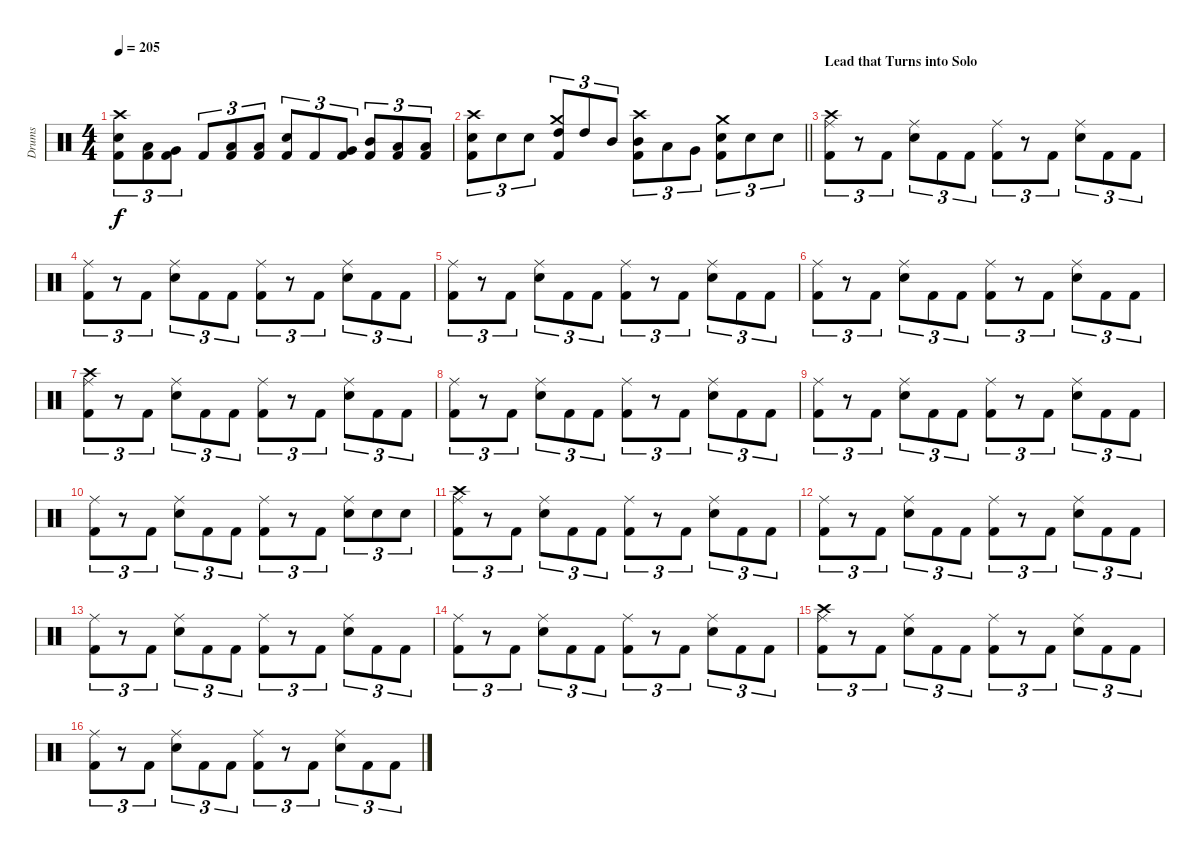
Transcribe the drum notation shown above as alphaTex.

\track ("Drums" "Drums") {instrument percussion}
\staff {score}
\articulation defaults
\ts (4 4)
\tempo 205
\clef neutral
\ks c
("Crash high (hit)" "Snare (hit) 2" "Kick (hit) 2").8{tu (3 2) dy f} ("Low Tom (hit)" "Kick (hit) 2").8{tu (3 2)} ("Very Low Tom (hit)" "Kick (hit) 2").8{tu (3 2)} "Kick (hit) 2".8{tu (3 2)} ("Low Floor Tom (hit)" "Kick (hit) 2").8{tu (3 2)} ("Low Floor Tom (hit)" "Kick (hit) 2").8{tu (3 2)} ("Snare (hit) 2" "Kick (hit) 2").8{tu (3 2)} "Kick (hit) 2".8{tu (3 2)} ("Very Low Tom (hit)" "Kick (hit) 2").8{tu (3 2)} ("Mid Tom (hit)" "Kick (hit) 2").8{tu (3 2)} ("Low Floor Tom (hit)" "Kick (hit) 2").8{tu (3 2)} ("Low Tom (hit)" "Kick (hit) 2").8{tu (3 2)} |
\barLineRight lightlight
("Crash high (hit)" "Snare (hit) 2" "Kick (hit) 2").8{tu (3 2)} "Snare (hit) 2".8{tu (3 2)} "Snare (hit) 2".8{tu (3 2)} ("Crash medium (hit)" "High Tom (hit)" "Kick (hit) 2").8{tu (3 2)} "High Tom (hit)".8{tu (3 2)} "Mid Tom (hit)".8{tu (3 2)} ("Crash high (hit)" "Mid Tom (hit)" "Kick (hit) 2").8{tu (3 2)} "Low Tom (hit)".8{tu (3 2)} "Very Low Tom (hit)".8{tu (3 2)} ("Crash medium (hit)" "Snare (hit) 2" "Kick (hit) 2").8{tu (3 2)} "Snare (hit) 2".8{tu (3 2)} "Snare (hit) 2".8{tu (3 2)} |
\section ("" "Lead that Turns into Solo")
("Crash high (hit)" "Ride (middle)" "Kick (hit) 2").8{tu (3 2)} r.8{tu (3 2)} "Kick (hit) 2".8{tu (3 2)} ("Ride (middle)" "Snare (hit) 2").8{tu (3 2)} "Kick (hit) 2".8{tu (3 2)} "Kick (hit) 2".8{tu (3 2)} ("Ride (middle)" "Kick (hit) 2").8{tu (3 2)} r.8{tu (3 2)} "Kick (hit) 2".8{tu (3 2)} ("Ride (middle)" "Snare (hit) 2").8{tu (3 2)} "Kick (hit) 2".8{tu (3 2)} "Kick (hit) 2".8{tu (3 2)} |
("Ride (middle)" "Kick (hit) 2").8{tu (3 2)} r.8{tu (3 2)} "Kick (hit) 2".8{tu (3 2)} ("Ride (middle)" "Snare (hit) 2").8{tu (3 2)} "Kick (hit) 2".8{tu (3 2)} "Kick (hit) 2".8{tu (3 2)} ("Ride (middle)" "Kick (hit) 2").8{tu (3 2)} r.8{tu (3 2)} "Kick (hit) 2".8{tu (3 2)} ("Ride (middle)" "Snare (hit) 2").8{tu (3 2)} "Kick (hit) 2".8{tu (3 2)} "Kick (hit) 2".8{tu (3 2)} |
("Ride (middle)" "Kick (hit) 2").8{tu (3 2)} r.8{tu (3 2)} "Kick (hit) 2".8{tu (3 2)} ("Ride (middle)" "Snare (hit) 2").8{tu (3 2)} "Kick (hit) 2".8{tu (3 2)} "Kick (hit) 2".8{tu (3 2)} ("Ride (middle)" "Kick (hit) 2").8{tu (3 2)} r.8{tu (3 2)} "Kick (hit) 2".8{tu (3 2)} ("Ride (middle)" "Snare (hit) 2").8{tu (3 2)} "Kick (hit) 2".8{tu (3 2)} "Kick (hit) 2".8{tu (3 2)} |
("Ride (middle)" "Kick (hit) 2").8{tu (3 2)} r.8{tu (3 2)} "Kick (hit) 2".8{tu (3 2)} ("Ride (middle)" "Snare (hit) 2").8{tu (3 2)} "Kick (hit) 2".8{tu (3 2)} "Kick (hit) 2".8{tu (3 2)} ("Ride (middle)" "Kick (hit) 2").8{tu (3 2)} r.8{tu (3 2)} "Kick (hit) 2".8{tu (3 2)} ("Ride (middle)" "Snare (hit) 2").8{tu (3 2)} "Kick (hit) 2".8{tu (3 2)} "Kick (hit) 2".8{tu (3 2)} |
("Crash high (hit)" "Ride (middle)" "Kick (hit) 2").8{tu (3 2)} r.8{tu (3 2)} "Kick (hit) 2".8{tu (3 2)} ("Ride (middle)" "Snare (hit) 2").8{tu (3 2)} "Kick (hit) 2".8{tu (3 2)} "Kick (hit) 2".8{tu (3 2)} ("Ride (middle)" "Kick (hit) 2").8{tu (3 2)} r.8{tu (3 2)} "Kick (hit) 2".8{tu (3 2)} ("Ride (middle)" "Snare (hit) 2").8{tu (3 2)} "Kick (hit) 2".8{tu (3 2)} "Kick (hit) 2".8{tu (3 2)} |
("Ride (middle)" "Kick (hit) 2").8{tu (3 2)} r.8{tu (3 2)} "Kick (hit) 2".8{tu (3 2)} ("Ride (middle)" "Snare (hit) 2").8{tu (3 2)} "Kick (hit) 2".8{tu (3 2)} "Kick (hit) 2".8{tu (3 2)} ("Ride (middle)" "Kick (hit) 2").8{tu (3 2)} r.8{tu (3 2)} "Kick (hit) 2".8{tu (3 2)} ("Ride (middle)" "Snare (hit) 2").8{tu (3 2)} "Kick (hit) 2".8{tu (3 2)} "Kick (hit) 2".8{tu (3 2)} |
("Ride (middle)" "Kick (hit) 2").8{tu (3 2)} r.8{tu (3 2)} "Kick (hit) 2".8{tu (3 2)} ("Ride (middle)" "Snare (hit) 2").8{tu (3 2)} "Kick (hit) 2".8{tu (3 2)} "Kick (hit) 2".8{tu (3 2)} ("Ride (middle)" "Kick (hit) 2").8{tu (3 2)} r.8{tu (3 2)} "Kick (hit) 2".8{tu (3 2)} ("Ride (middle)" "Snare (hit) 2").8{tu (3 2)} "Kick (hit) 2".8{tu (3 2)} "Kick (hit) 2".8{tu (3 2)} |
("Ride (middle)" "Kick (hit) 2").8{tu (3 2)} r.8{tu (3 2)} "Kick (hit) 2".8{tu (3 2)} ("Ride (middle)" "Snare (hit) 2").8{tu (3 2)} "Kick (hit) 2".8{tu (3 2)} "Kick (hit) 2".8{tu (3 2)} ("Ride (middle)" "Kick (hit) 2").8{tu (3 2)} r.8{tu (3 2)} "Kick (hit) 2".8{tu (3 2)} ("Ride (middle)" "Snare (hit) 2").8{tu (3 2)} "Snare (hit) 2".8{tu (3 2)} "Snare (hit) 2".8{tu (3 2)} |
("Crash high (hit)" "Ride (middle)" "Kick (hit) 2").8{tu (3 2)} r.8{tu (3 2)} "Kick (hit) 2".8{tu (3 2)} ("Ride (middle)" "Snare (hit) 2").8{tu (3 2)} "Kick (hit) 2".8{tu (3 2)} "Kick (hit) 2".8{tu (3 2)} ("Ride (middle)" "Kick (hit) 2").8{tu (3 2)} r.8{tu (3 2)} "Kick (hit) 2".8{tu (3 2)} ("Ride (middle)" "Snare (hit) 2").8{tu (3 2)} "Kick (hit) 2".8{tu (3 2)} "Kick (hit) 2".8{tu (3 2)} |
("Ride (middle)" "Kick (hit) 2").8{tu (3 2)} r.8{tu (3 2)} "Kick (hit) 2".8{tu (3 2)} ("Ride (middle)" "Snare (hit) 2").8{tu (3 2)} "Kick (hit) 2".8{tu (3 2)} "Kick (hit) 2".8{tu (3 2)} ("Ride (middle)" "Kick (hit) 2").8{tu (3 2)} r.8{tu (3 2)} "Kick (hit) 2".8{tu (3 2)} ("Ride (middle)" "Snare (hit) 2").8{tu (3 2)} "Kick (hit) 2".8{tu (3 2)} "Kick (hit) 2".8{tu (3 2)} |
("Ride (middle)" "Kick (hit) 2").8{tu (3 2)} r.8{tu (3 2)} "Kick (hit) 2".8{tu (3 2)} ("Ride (middle)" "Snare (hit) 2").8{tu (3 2)} "Kick (hit) 2".8{tu (3 2)} "Kick (hit) 2".8{tu (3 2)} ("Ride (middle)" "Kick (hit) 2").8{tu (3 2)} r.8{tu (3 2)} "Kick (hit) 2".8{tu (3 2)} ("Ride (middle)" "Snare (hit) 2").8{tu (3 2)} "Kick (hit) 2".8{tu (3 2)} "Kick (hit) 2".8{tu (3 2)} |
("Ride (middle)" "Kick (hit) 2").8{tu (3 2)} r.8{tu (3 2)} "Kick (hit) 2".8{tu (3 2)} ("Ride (middle)" "Snare (hit) 2").8{tu (3 2)} "Kick (hit) 2".8{tu (3 2)} "Kick (hit) 2".8{tu (3 2)} ("Ride (middle)" "Kick (hit) 2").8{tu (3 2)} r.8{tu (3 2)} "Kick (hit) 2".8{tu (3 2)} ("Ride (middle)" "Snare (hit) 2").8{tu (3 2)} "Kick (hit) 2".8{tu (3 2)} "Kick (hit) 2".8{tu (3 2)} |
("Crash high (hit)" "Ride (middle)" "Kick (hit) 2").8{tu (3 2)} r.8{tu (3 2)} "Kick (hit) 2".8{tu (3 2)} ("Ride (middle)" "Snare (hit) 2").8{tu (3 2)} "Kick (hit) 2".8{tu (3 2)} "Kick (hit) 2".8{tu (3 2)} ("Ride (middle)" "Kick (hit) 2").8{tu (3 2)} r.8{tu (3 2)} "Kick (hit) 2".8{tu (3 2)} ("Ride (middle)" "Snare (hit) 2").8{tu (3 2)} "Kick (hit) 2".8{tu (3 2)} "Kick (hit) 2".8{tu (3 2)} |
("Ride (middle)" "Kick (hit) 2").8{tu (3 2)} r.8{tu (3 2)} "Kick (hit) 2".8{tu (3 2)} ("Ride (middle)" "Snare (hit) 2").8{tu (3 2)} "Kick (hit) 2".8{tu (3 2)} "Kick (hit) 2".8{tu (3 2)} ("Ride (middle)" "Kick (hit) 2").8{tu (3 2)} r.8{tu (3 2)} "Kick (hit) 2".8{tu (3 2)} ("Ride (middle)" "Snare (hit) 2").8{tu (3 2)} "Kick (hit) 2".8{tu (3 2)} "Kick (hit) 2".8{tu (3 2)}
